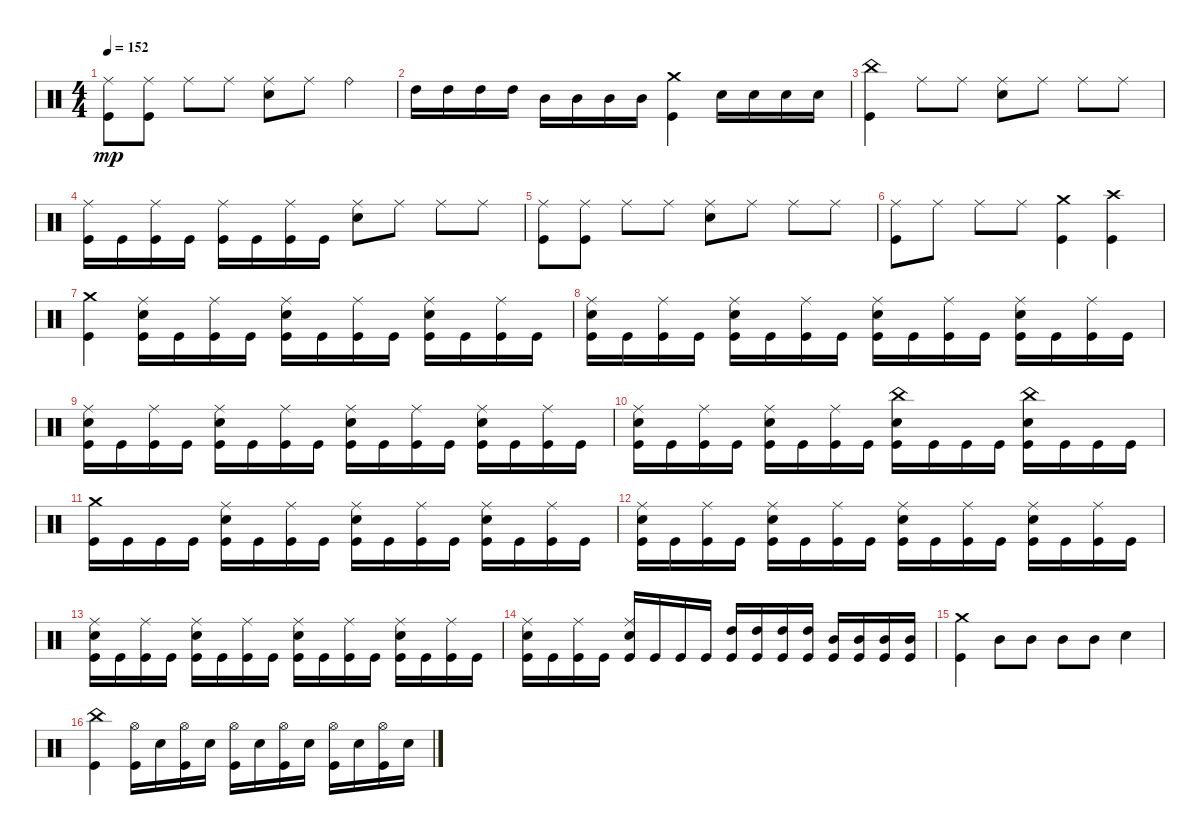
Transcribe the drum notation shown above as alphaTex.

\track "" {instrument percussion}
\staff {score}
\articulation defaults
\ts (4 4)
\tempo 152
\clef neutral
\ks c
("Kick (hit)" "Ride (middle)").8{dy mp} ("Kick (hit)" "Ride (middle)").8 "Ride (middle)".8 "Ride (middle)".8 ("Ride (middle)" "Snare (hit) 2").8 "Ride (middle)".8 "Ride (bell)".4 |
"High Tom (hit)".16 "High Tom (hit)".16 "High Tom (hit)".16 "High Tom (hit)".16 "Mid Tom (hit)".16 "Mid Tom (hit)".16 "Mid Tom (hit)".16 "Mid Tom (hit)".16 ("Kick (hit)" "Crash medium (hit)").4 "Snare (hit) 2".16 "Snare (hit) 2".16 "Snare (hit) 2".16 "Snare (hit) 2".16 |
("Kick (hit)" "China (hit)").4 "Ride (middle)".8 "Ride (middle)".8 ("Ride (middle)" "Snare (hit) 2").8 "Ride (middle)".8 "Ride (middle)".8 "Ride (middle)".8 |
("Ride (middle)" "Kick (hit)").16 "Kick (hit)".16 ("Ride (middle)" "Kick (hit)").16 "Kick (hit)".16 ("Ride (middle)" "Kick (hit)").16 "Kick (hit)".16 ("Ride (middle)" "Kick (hit)").16 "Kick (hit)".16 ("Ride (middle)" "Snare (hit) 2").8 "Ride (middle)".8 "Ride (middle)".8 "Ride (middle)".8 |
("Kick (hit)" "Ride (middle)").8 ("Kick (hit)" "Ride (middle)").8 "Ride (middle)".8 "Ride (middle)".8 ("Ride (middle)" "Snare (hit) 2").8 "Ride (middle)".8 "Ride (middle)".8 "Ride (middle)".8 |
("Kick (hit)" "Ride (middle)").8 "Ride (middle)".8 "Ride (middle)".8 "Ride (middle)".8 ("Crash medium (hit)" "Kick (hit)").4 ("Kick (hit)" "Crash high (hit)").4 |
("Kick (hit)" "Crash medium (hit)").4 ("Kick (hit)" "Snare (hit) 2" "Ride (middle)").16 "Kick (hit)".16 ("Kick (hit)" "Ride (middle)").16 "Kick (hit)".16 ("Kick (hit)" "Snare (hit) 2" "Ride (middle)").16 "Kick (hit)".16 ("Kick (hit)" "Ride (middle)").16 "Kick (hit)".16 ("Kick (hit)" "Snare (hit) 2" "Ride (middle)").16 "Kick (hit)".16 ("Kick (hit)" "Ride (middle)").16 "Kick (hit)".16 |
("Kick (hit)" "Snare (hit) 2" "Ride (middle)").16 "Kick (hit)".16 ("Kick (hit)" "Ride (middle)").16 "Kick (hit)".16 ("Kick (hit)" "Snare (hit) 2" "Ride (middle)").16 "Kick (hit)".16 ("Kick (hit)" "Ride (middle)").16 "Kick (hit)".16 ("Kick (hit)" "Snare (hit) 2" "Ride (middle)").16 "Kick (hit)".16 ("Kick (hit)" "Ride (middle)").16 "Kick (hit)".16 ("Kick (hit)" "Snare (hit) 2" "Ride (middle)").16 "Kick (hit)".16 ("Kick (hit)" "Ride (middle)").16 "Kick (hit)".16 |
("Kick (hit)" "Snare (hit) 2" "Ride (middle)").16 "Kick (hit)".16 ("Kick (hit)" "Ride (middle)").16 "Kick (hit)".16 ("Kick (hit)" "Snare (hit) 2" "Ride (middle)").16 "Kick (hit)".16 ("Kick (hit)" "Ride (middle)").16 "Kick (hit)".16 ("Kick (hit)" "Snare (hit) 2" "Ride (middle)").16 "Kick (hit)".16 ("Kick (hit)" "Ride (middle)").16 "Kick (hit)".16 ("Kick (hit)" "Snare (hit) 2" "Ride (middle)").16 "Kick (hit)".16 ("Kick (hit)" "Ride (middle)").16 "Kick (hit)".16 |
("Kick (hit)" "Snare (hit) 2" "Ride (middle)").16 "Kick (hit)".16 ("Kick (hit)" "Ride (middle)").16 "Kick (hit)".16 ("Kick (hit)" "Snare (hit) 2" "Ride (middle)").16 "Kick (hit)".16 ("Kick (hit)" "Ride (middle)").16 "Kick (hit)".16 ("Kick (hit)" "Snare (hit) 2" "China (hit)").16 "Kick (hit)".16 "Kick (hit)".16 "Kick (hit)".16 ("Kick (hit)" "Snare (hit) 2" "China (hit)").16 "Kick (hit)".16 "Kick (hit)".16 "Kick (hit)".16 |
("Kick (hit)" "Crash medium (hit)").16 "Kick (hit)".16 "Kick (hit)".16 "Kick (hit)".16 ("Kick (hit)" "Snare (hit) 2" "Ride (middle)").16 "Kick (hit)".16 ("Kick (hit)" "Ride (middle)").16 "Kick (hit)".16 ("Kick (hit)" "Snare (hit) 2" "Ride (middle)").16 "Kick (hit)".16 ("Kick (hit)" "Ride (middle)").16 "Kick (hit)".16 ("Kick (hit)" "Snare (hit) 2" "Ride (middle)").16 "Kick (hit)".16 ("Kick (hit)" "Ride (middle)").16 "Kick (hit)".16 |
("Kick (hit)" "Snare (hit) 2" "Ride (middle)").16 "Kick (hit)".16 ("Kick (hit)" "Ride (middle)").16 "Kick (hit)".16 ("Kick (hit)" "Snare (hit) 2" "Ride (middle)").16 "Kick (hit)".16 ("Kick (hit)" "Ride (middle)").16 "Kick (hit)".16 ("Kick (hit)" "Snare (hit) 2" "Ride (middle)").16 "Kick (hit)".16 ("Kick (hit)" "Ride (middle)").16 "Kick (hit)".16 ("Kick (hit)" "Snare (hit) 2" "Ride (middle)").16 "Kick (hit)".16 ("Kick (hit)" "Ride (middle)").16 "Kick (hit)".16 |
("Kick (hit)" "Snare (hit) 2" "Ride (middle)").16 "Kick (hit)".16 ("Kick (hit)" "Ride (middle)").16 "Kick (hit)".16 ("Kick (hit)" "Snare (hit) 2" "Ride (middle)").16 "Kick (hit)".16 ("Kick (hit)" "Ride (middle)").16 "Kick (hit)".16 ("Kick (hit)" "Snare (hit) 2" "Ride (middle)").16 "Kick (hit)".16 ("Kick (hit)" "Ride (middle)").16 "Kick (hit)".16 ("Kick (hit)" "Snare (hit) 2" "Ride (middle)").16 "Kick (hit)".16 ("Kick (hit)" "Ride (middle)").16 "Kick (hit)".16 |
("Kick (hit)" "Snare (hit) 2" "Ride (middle)").16 "Kick (hit)".16 ("Kick (hit)" "Ride (middle)").16 "Kick (hit)".16 ("Kick (hit)" "Snare (hit) 2" "Ride (middle)").16 "Kick (hit)".16 "Kick (hit)".16 "Kick (hit)".16 ("High Tom (hit)" "Kick (hit)").16 ("High Tom (hit)" "Kick (hit)").16 ("High Tom (hit)" "Kick (hit)").16 ("High Tom (hit)" "Kick (hit)").16 ("Mid Tom (hit)" "Kick (hit)").16 ("Mid Tom (hit)" "Kick (hit)").16 ("Mid Tom (hit)" "Kick (hit)").16 ("Mid Tom (hit)" "Kick (hit)").16 |
("Crash medium (hit)" "Kick (hit)").4 "Mid Tom (hit)".8 "Mid Tom (hit)".8 "Mid Tom (hit)".8 "Mid Tom (hit)".8 "Snare (hit) 2".4 |
("Kick (hit)" "China (hit)").4 ("Kick (hit)" "Hi-Hat (open)").16 "Snare (hit) 2".16 ("Kick (hit)" "Hi-Hat (open)").16 "Snare (hit) 2".16 ("Kick (hit)" "Hi-Hat (open)").16 "Snare (hit) 2".16 ("Kick (hit)" "Hi-Hat (open)").16 "Snare (hit) 2".16 ("Kick (hit)" "Hi-Hat (open)").16 "Snare (hit) 2".16 ("Kick (hit)" "Hi-Hat (open)").16 "Snare (hit) 2".16
